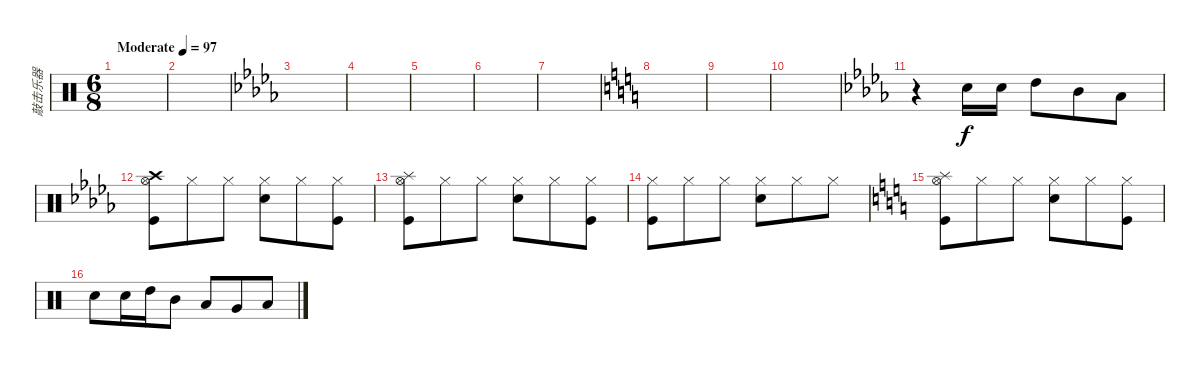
\track ("敲击乐器" "敲击乐器") {instrument percussion}
\staff {score}
\articulation defaults
\ts (6 8)
\tempo (97 "Moderate")
\clef neutral
\ks c
|
|
\ks bbminor
|
|
|
|
|
\ks c
|
|
|
\ks bbminor
r.4 "Electric Snare (hit)".16 "Electric Snare (hit)".16 "High Tom (hit)".8 "Mid Tom (hit)".8 "Low Tom (hit)".8 |
("Crash high (hit)" "Hi-Hat (open)" "Kick (hit)").8 "Hi-Hat (closed)".8 "Hi-Hat (closed)".8 ("Hi-Hat (closed)" "Electric Snare (hit)").8 "Hi-Hat (closed)".8 ("Hi-Hat (closed)" "Kick (hit)").8 |
("Splash (hit)" "Hi-Hat (open)" "Kick (hit)").8 "Hi-Hat (closed)".8 "Hi-Hat (closed)".8 ("Hi-Hat (closed)" "Electric Snare (hit)").8 "Hi-Hat (closed)".8 ("Hi-Hat (closed)" "Kick (hit)").8 |
("Hi-Hat (closed)" "Kick (hit)").8 "Hi-Hat (closed)".8 "Hi-Hat (closed)".8 ("Hi-Hat (closed)" "Electric Snare (hit)").8 "Hi-Hat (closed)".8 "Hi-Hat (closed)".8 |
\ks c
("Splash (hit)" "Hi-Hat (open)" "Kick (hit)").8 "Hi-Hat (closed)".8 "Hi-Hat (closed)".8 ("Hi-Hat (closed)" "Electric Snare (hit)").8 "Hi-Hat (closed)".8 ("Hi-Hat (closed)" "Kick (hit)").8 |
"Electric Snare (hit)".8 "Electric Snare (hit)".16 "High Tom (hit)".16 "Mid Tom (hit)".8 "Low Tom (hit)".8 "Very Low Tom (hit)".8 "Low Floor Tom (hit)".8
